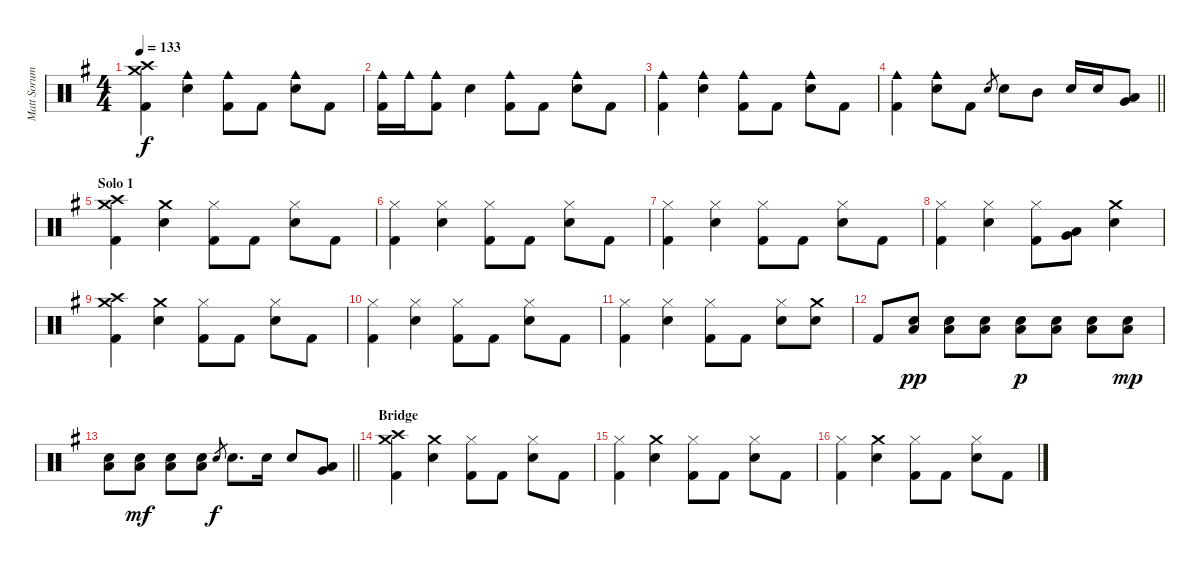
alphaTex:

\track ("Matt Sorum - Drums" "Matt Sorum") {instrument percussion}
\staff {score}
\articulation defaults
\ts (4 4)
\tempo 133
\clef neutral
\ks g
("Crash medium (hit)" "Crash high (hit)" "Kick (hit) 2").4{dy f} ("Cowbell medium (hit)" "Snare (hit) 2").4 ("Cowbell medium (hit)" "Kick (hit) 2").8 "Kick (hit) 2".8 ("Cowbell medium (hit)" "Snare (hit) 2").8 "Kick (hit) 2".8 |
("Cowbell medium (hit)" "Kick (hit) 2").16 "Cowbell medium (hit)".16 ("Cowbell medium (hit)" "Kick (hit) 2").8 "Snare (hit) 2".4 ("Cowbell medium (hit)" "Kick (hit) 2").8 "Kick (hit) 2".8 ("Cowbell medium (hit)" "Snare (hit) 2").8 "Kick (hit) 2".8 |
("Cowbell medium (hit)" "Kick (hit) 2").4 ("Cowbell medium (hit)" "Snare (hit) 2").4 ("Cowbell medium (hit)" "Kick (hit) 2").8 "Kick (hit) 2".8 ("Cowbell medium (hit)" "Snare (hit) 2").8 "Kick (hit) 2".8 |
\barLineRight lightlight
("Cowbell medium (hit)" "Kick (hit) 2").4 ("Cowbell medium (hit)" "Snare (hit) 2").8 "Kick (hit) 2".8 "Snare (hit) 2".8{gr} "Snare (hit) 2".8 "Mid Tom (hit)".8 "Snare (hit) 2".16 "Snare (hit) 2".16 ("Low Tom (hit)" "Very Low Tom (hit)").8 |
\section ("" "Solo 1")
("Crash medium (hit)" "Crash high (hit)" "Kick (hit) 2").4 ("Crash medium (hit)" "Snare (hit) 2").4 ("Hi-Hat (closed)" "Kick (hit) 2").8 "Kick (hit) 2".8 ("Hi-Hat (closed)" "Snare (hit) 2").8 "Kick (hit) 2".8 |
("Hi-Hat (closed)" "Kick (hit) 2").4 ("Hi-Hat (closed)" "Snare (hit) 2").4 ("Hi-Hat (closed)" "Kick (hit) 2").8 "Kick (hit) 2".8 ("Hi-Hat (closed)" "Snare (hit) 2").8 "Kick (hit) 2".8 |
("Hi-Hat (closed)" "Kick (hit) 2").4 ("Hi-Hat (closed)" "Snare (hit) 2").4 ("Hi-Hat (closed)" "Kick (hit) 2").8 "Kick (hit) 2".8 ("Hi-Hat (closed)" "Snare (hit) 2").8 "Kick (hit) 2".8 |
("Hi-Hat (closed)" "Kick (hit) 2").4 ("Hi-Hat (closed)" "Snare (hit) 2").4 ("Hi-Hat (closed)" "Kick (hit) 2").8 ("Low Tom (hit)" "Very Low Tom (hit)").8 ("Crash medium (hit)" "Snare (hit) 2").4 |
("Crash medium (hit)" "Crash high (hit)" "Kick (hit) 2").4 ("Crash medium (hit)" "Snare (hit) 2").4 ("Hi-Hat (closed)" "Kick (hit) 2").8 "Kick (hit) 2".8 ("Hi-Hat (closed)" "Snare (hit) 2").8 "Kick (hit) 2".8 |
("Hi-Hat (closed)" "Kick (hit) 2").4 ("Hi-Hat (closed)" "Snare (hit) 2").4 ("Hi-Hat (closed)" "Kick (hit) 2").8 "Kick (hit) 2".8 ("Hi-Hat (closed)" "Snare (hit) 2").8 "Kick (hit) 2".8 |
("Hi-Hat (closed)" "Kick (hit) 2").4 ("Hi-Hat (closed)" "Snare (hit) 2").4 ("Hi-Hat (closed)" "Kick (hit) 2").8 "Kick (hit) 2".8 ("Hi-Hat (closed)" "Snare (hit) 2").8 ("Crash medium (hit)" "Snare (hit) 2").8 |
"Kick (hit) 2".8 ("Low Tom (hit)" "Snare (hit) 2").8{dy pp} ("Low Tom (hit)" "Snare (hit) 2").8 ("Low Tom (hit)" "Snare (hit) 2").8 ("Low Tom (hit)" "Snare (hit) 2").8{dy p} ("Low Tom (hit)" "Snare (hit) 2").8 ("Low Tom (hit)" "Snare (hit) 2").8 ("Low Tom (hit)" "Snare (hit) 2").8{dy mp} |
\barLineRight lightlight
("Low Tom (hit)" "Snare (hit) 2").8 ("Low Tom (hit)" "Snare (hit) 2").8{dy mf} ("Low Tom (hit)" "Snare (hit) 2").8 ("Low Tom (hit)" "Snare (hit) 2").8 "Snare (hit) 2".8{gr dy f} "Snare (hit) 2".8{d} "Snare (hit) 2".16 "Snare (hit) 2".8 ("Low Tom (hit)" "Very Low Tom (hit)").8 |
\section ("" "Bridge")
("Crash medium (hit)" "Crash high (hit)" "Kick (hit) 2").4 ("Crash medium (hit)" "Snare (hit) 2").4 ("Hi-Hat (closed)" "Kick (hit) 2").8 "Kick (hit) 2".8 ("Hi-Hat (closed)" "Snare (hit) 2").8 "Kick (hit) 2".8 |
("Hi-Hat (closed)" "Kick (hit) 2").4 ("Crash medium (hit)" "Snare (hit) 2").4 ("Hi-Hat (closed)" "Kick (hit) 2").8 "Kick (hit) 2".8 ("Hi-Hat (closed)" "Snare (hit) 2").8 "Kick (hit) 2".8 |
("Hi-Hat (closed)" "Kick (hit) 2").4 ("Crash medium (hit)" "Snare (hit) 2").4 ("Hi-Hat (closed)" "Kick (hit) 2").8 "Kick (hit) 2".8 ("Hi-Hat (closed)" "Snare (hit) 2").8 "Kick (hit) 2".8
